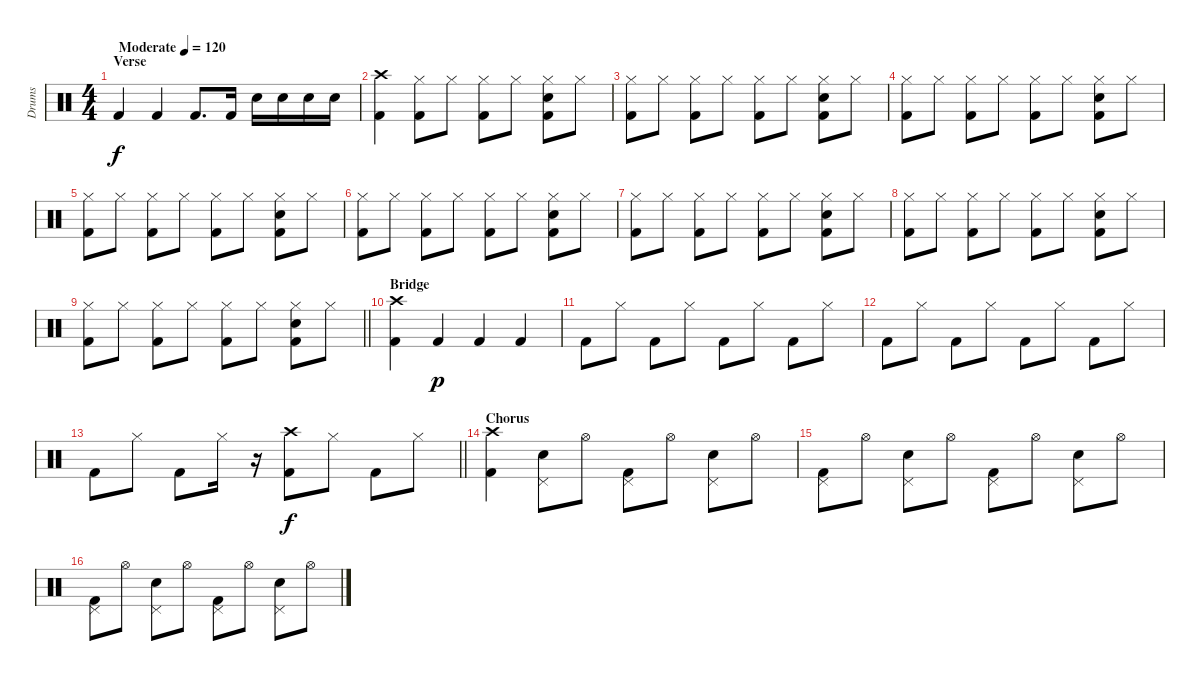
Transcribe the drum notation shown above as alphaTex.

\track ("Drums" "Drums") {instrument percussion}
\staff {score}
\articulation defaults
\ts (4 4)
\section ("" "Verse")
\tempo (120 "Moderate")
\clef neutral
\ks c "Kick (hit) 2".4{dy f} "Kick (hit) 2".4 "Kick (hit) 2".8{d} "Kick (hit) 2".16 "Electric Snare (hit)".16 "Electric Snare (hit)".16 "Electric Snare (hit)".16 "Electric Snare (hit)".16
|
("Crash high (hit)" "Kick (hit) 2").4 ("Hi-Hat (closed)" "Kick (hit) 2").8 "Hi-Hat (closed)".8 ("Hi-Hat (closed)" "Kick (hit) 2").8 "Hi-Hat (closed)".8 ("Hi-Hat (closed)" "Electric Snare (hit)" "Kick (hit) 2").8 "Hi-Hat (closed)".8 |
("Hi-Hat (closed)" "Kick (hit) 2").8 "Hi-Hat (closed)".8 ("Hi-Hat (closed)" "Kick (hit) 2").8 "Hi-Hat (closed)".8 ("Hi-Hat (closed)" "Kick (hit) 2").8 "Hi-Hat (closed)".8 ("Hi-Hat (closed)" "Electric Snare (hit)" "Kick (hit) 2").8 "Hi-Hat (closed)".8 |
("Hi-Hat (closed)" "Kick (hit) 2").8 "Hi-Hat (closed)".8 ("Hi-Hat (closed)" "Kick (hit) 2").8 "Hi-Hat (closed)".8 ("Hi-Hat (closed)" "Kick (hit) 2").8 "Hi-Hat (closed)".8 ("Hi-Hat (closed)" "Electric Snare (hit)" "Kick (hit) 2").8 "Hi-Hat (closed)".8 |
("Hi-Hat (closed)" "Kick (hit) 2").8 "Hi-Hat (closed)".8 ("Hi-Hat (closed)" "Kick (hit) 2").8 "Hi-Hat (closed)".8 ("Hi-Hat (closed)" "Kick (hit) 2").8 "Hi-Hat (closed)".8 ("Hi-Hat (closed)" "Electric Snare (hit)" "Kick (hit) 2").8 "Hi-Hat (closed)".8 |
("Hi-Hat (closed)" "Kick (hit) 2").8 "Hi-Hat (closed)".8 ("Hi-Hat (closed)" "Kick (hit) 2").8 "Hi-Hat (closed)".8 ("Hi-Hat (closed)" "Kick (hit) 2").8 "Hi-Hat (closed)".8 ("Hi-Hat (closed)" "Electric Snare (hit)" "Kick (hit) 2").8 "Hi-Hat (closed)".8 |
("Hi-Hat (closed)" "Kick (hit) 2").8 "Hi-Hat (closed)".8 ("Hi-Hat (closed)" "Kick (hit) 2").8 "Hi-Hat (closed)".8 ("Hi-Hat (closed)" "Kick (hit) 2").8 "Hi-Hat (closed)".8 ("Hi-Hat (closed)" "Electric Snare (hit)" "Kick (hit) 2").8 "Hi-Hat (closed)".8 |
("Hi-Hat (closed)" "Kick (hit) 2").8 "Hi-Hat (closed)".8 ("Hi-Hat (closed)" "Kick (hit) 2").8 "Hi-Hat (closed)".8 ("Hi-Hat (closed)" "Kick (hit) 2").8 "Hi-Hat (closed)".8 ("Hi-Hat (closed)" "Electric Snare (hit)" "Kick (hit) 2").8 "Hi-Hat (closed)".8 |
\barLineRight lightlight
("Hi-Hat (closed)" "Kick (hit) 2").8 "Hi-Hat (closed)".8 ("Hi-Hat (closed)" "Kick (hit) 2").8 "Hi-Hat (closed)".8 ("Hi-Hat (closed)" "Kick (hit) 2").8 "Hi-Hat (closed)".8 ("Hi-Hat (closed)" "Electric Snare (hit)" "Kick (hit) 2").8 "Hi-Hat (closed)".8 |
\section ("" "Bridge")
("Crash high (hit)" "Kick (hit) 2").4 "Kick (hit) 2".4{dy p} "Kick (hit) 2".4 "Kick (hit) 2".4 |
"Kick (hit) 2".8 "Hi-Hat (closed)".8 "Kick (hit) 2".8 "Hi-Hat (closed)".8 "Kick (hit) 2".8 "Hi-Hat (closed)".8 "Kick (hit) 2".8 "Hi-Hat (closed)".8 |
"Kick (hit) 2".8 "Hi-Hat (closed)".8 "Kick (hit) 2".8 "Hi-Hat (closed)".8 "Kick (hit) 2".8 "Hi-Hat (closed)".8 "Kick (hit) 2".8 "Hi-Hat (closed)".8 |
\barLineRight lightlight "Kick (hit) 2".8 "Hi-Hat (closed)".8 "Kick (hit) 2".8 "Hi-Hat (closed)".16
r.16{volume 0} ("Crash high (hit)" "Kick (hit) 2").8{dy f volume 13} "Hi-Hat (closed)".8 "Kick (hit) 2".8 "Hi-Hat (closed)".8 |
\section ("" "Chorus")
("Crash high (hit)" "Kick (hit) 2").4 ("Pedal Hi-Hat (hit)" "Electric Snare (hit)").8 "Hi-Hat (open)".8 ("Pedal Hi-Hat (hit)" "Kick (hit) 2").8 "Hi-Hat (open)".8 ("Pedal Hi-Hat (hit)" "Electric Snare (hit)").8 "Hi-Hat (open)".8 |
("Pedal Hi-Hat (hit)" "Kick (hit) 2").8 "Hi-Hat (open)".8 ("Pedal Hi-Hat (hit)" "Electric Snare (hit)").8 "Hi-Hat (open)".8 ("Pedal Hi-Hat (hit)" "Kick (hit) 2").8 "Hi-Hat (open)".8 ("Pedal Hi-Hat (hit)" "Electric Snare (hit)").8 "Hi-Hat (open)".8 |
("Pedal Hi-Hat (hit)" "Kick (hit) 2").8 "Hi-Hat (open)".8 ("Pedal Hi-Hat (hit)" "Electric Snare (hit)").8 "Hi-Hat (open)".8 ("Pedal Hi-Hat (hit)" "Kick (hit) 2").8 "Hi-Hat (open)".8 ("Pedal Hi-Hat (hit)" "Electric Snare (hit)").8 "Hi-Hat (open)".8
